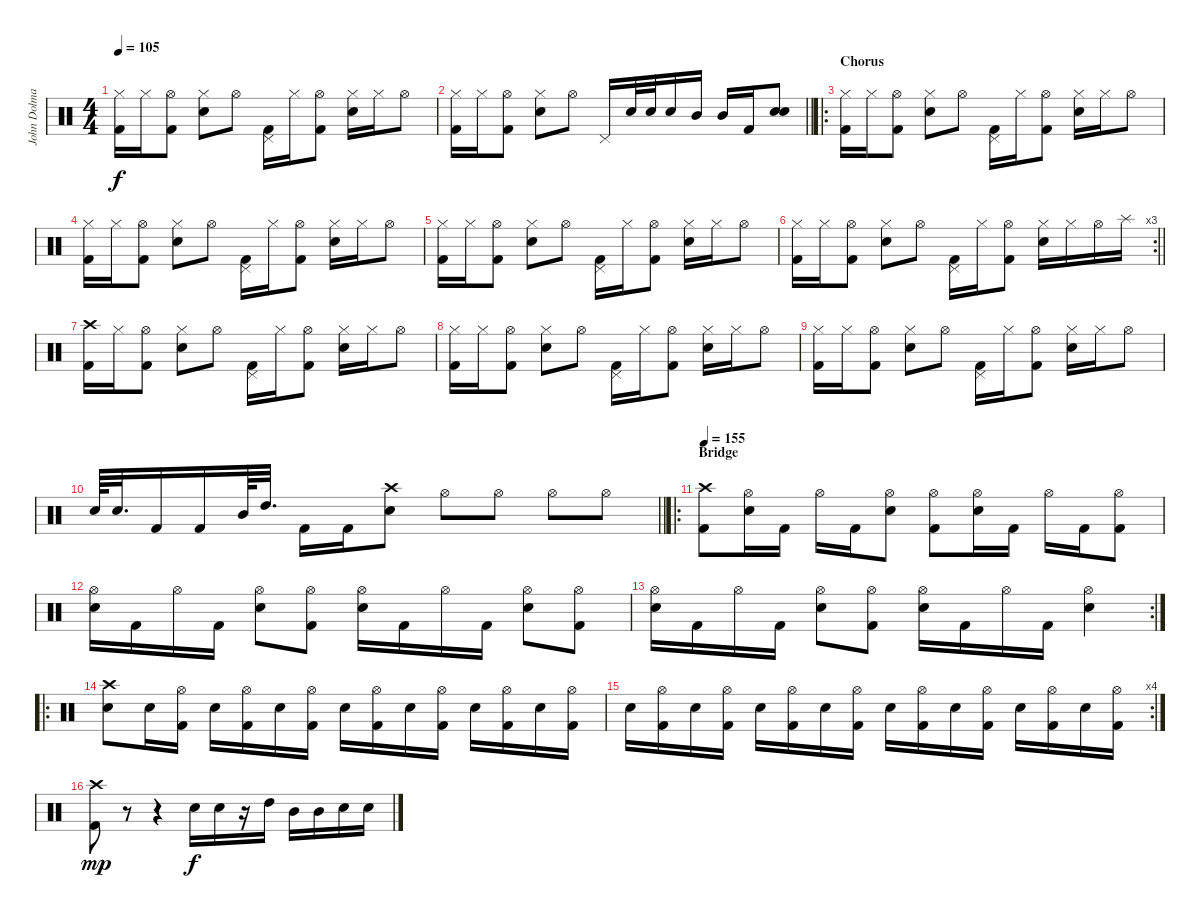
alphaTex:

\track ("John Dolmayan" "John Dolma") {instrument percussion}
\staff {score}
\articulation defaults
\ts (4 4)
\tempo 105
\clef neutral
\ks c
("Kick (hit) 2" "Hi-Hat (closed)").16{dy f} "Hi-Hat (closed)".16 ("Kick (hit) 2" "Hi-Hat (open)").8 ("Electric Snare (hit)" "Hi-Hat (closed)").8 "Hi-Hat (open)".8 ("Kick (hit) 2" "Pedal Hi-Hat (hit)").16 "Hi-Hat (closed)".16 ("Kick (hit) 2" "Hi-Hat (open)").8 ("Electric Snare (hit)" "Hi-Hat (closed)").16 "Hi-Hat (closed)".16 "Hi-Hat (open)".8 |
\barLineRight lightlight
("Kick (hit) 2" "Hi-Hat (closed)").16 "Hi-Hat (closed)".16 ("Kick (hit) 2" "Hi-Hat (open)").8 ("Electric Snare (hit)" "Hi-Hat (closed)").8 "Hi-Hat (open)".8 "Pedal Hi-Hat (hit)".16 "Electric Snare (hit)".32 "Electric Snare (hit)".32 "Electric Snare (hit)".16 "Mid Tom (hit)".16 "Mid Tom (hit)".16 "Kick (hit) 2".16 ("Electric Snare (hit)" "Electric Snare (hit)").8 |
\ro
\section ("" "Chorus")
("Kick (hit) 2" "Hi-Hat (closed)").16 "Hi-Hat (closed)".16 ("Kick (hit) 2" "Hi-Hat (open)").8 ("Electric Snare (hit)" "Hi-Hat (closed)").8 "Hi-Hat (open)".8 ("Kick (hit) 2" "Pedal Hi-Hat (hit)").16 "Hi-Hat (closed)".16 ("Kick (hit) 2" "Hi-Hat (open)").8 ("Electric Snare (hit)" "Hi-Hat (closed)").16 "Hi-Hat (closed)".16 "Hi-Hat (open)".8 |
("Kick (hit) 2" "Hi-Hat (closed)").16 "Hi-Hat (closed)".16 ("Kick (hit) 2" "Hi-Hat (open)").8 ("Electric Snare (hit)" "Hi-Hat (closed)").8 "Hi-Hat (open)".8 ("Kick (hit) 2" "Pedal Hi-Hat (hit)").16 "Hi-Hat (closed)".16 ("Kick (hit) 2" "Hi-Hat (open)").8 ("Electric Snare (hit)" "Hi-Hat (closed)").16 "Hi-Hat (closed)".16 "Hi-Hat (open)".8 |
("Kick (hit) 2" "Hi-Hat (closed)").16 "Hi-Hat (closed)".16 ("Kick (hit) 2" "Hi-Hat (open)").8 ("Electric Snare (hit)" "Hi-Hat (closed)").8 "Hi-Hat (open)".8 ("Kick (hit) 2" "Pedal Hi-Hat (hit)").16 "Hi-Hat (closed)".16 ("Kick (hit) 2" "Hi-Hat (open)").8 ("Electric Snare (hit)" "Hi-Hat (closed)").16 "Hi-Hat (closed)".16 "Hi-Hat (open)".8 |
\rc 3
\barLineRight lightlight
("Kick (hit) 2" "Hi-Hat (closed)").16 "Hi-Hat (closed)".16 ("Kick (hit) 2" "Hi-Hat (open)").8 ("Electric Snare (hit)" "Hi-Hat (closed)").8 "Hi-Hat (open)".8 ("Kick (hit) 2" "Pedal Hi-Hat (hit)").16 "Hi-Hat (closed)".16 ("Kick (hit) 2" "Hi-Hat (open)").8 ("Electric Snare (hit)" "Hi-Hat (closed)").16 "Hi-Hat (closed)".16 "Hi-Hat (open)".16 "Splash (hit)".16 |
("Kick (hit) 2" "Crash high (hit)").16 "Hi-Hat (closed)".16 ("Kick (hit) 2" "Hi-Hat (open)").8 ("Electric Snare (hit)" "Hi-Hat (closed)").8 "Hi-Hat (open)".8 ("Kick (hit) 2" "Pedal Hi-Hat (hit)").16 "Hi-Hat (closed)".16 ("Kick (hit) 2" "Hi-Hat (open)").8 ("Electric Snare (hit)" "Hi-Hat (closed)").16 "Hi-Hat (closed)".16 "Hi-Hat (open)".8 |
("Kick (hit) 2" "Hi-Hat (closed)").16 "Hi-Hat (closed)".16 ("Kick (hit) 2" "Hi-Hat (open)").8 ("Electric Snare (hit)" "Hi-Hat (closed)").8 "Hi-Hat (open)".8 ("Kick (hit) 2" "Pedal Hi-Hat (hit)").16 "Hi-Hat (closed)".16 ("Kick (hit) 2" "Hi-Hat (open)").8 ("Electric Snare (hit)" "Hi-Hat (closed)").16 "Hi-Hat (closed)".16 "Hi-Hat (open)".8 |
("Kick (hit) 2" "Hi-Hat (closed)").16 "Hi-Hat (closed)".16 ("Kick (hit) 2" "Hi-Hat (open)").8 ("Electric Snare (hit)" "Hi-Hat (closed)").8 "Hi-Hat (open)".8 ("Kick (hit) 2" "Pedal Hi-Hat (hit)").16 "Hi-Hat (closed)".16 ("Kick (hit) 2" "Hi-Hat (open)").8 ("Electric Snare (hit)" "Hi-Hat (closed)").16 "Hi-Hat (closed)".16 "Hi-Hat (open)".8 |
\barLineRight lightlight "Electric Snare (hit)".64 "Electric Snare (hit)".32{d} "Kick (hit) 2".16 "Kick (hit) 2".16 "Mid Tom (hit)".64 "High Tom (hit)".32{d} "Kick (hit) 2".16 "Kick (hit) 2".16
("Crash high (hit)" "Electric Snare (hit)").8 "Hi-Hat (open)".8 "Hi-Hat (open)".8 "Hi-Hat (open)".8 "Hi-Hat (open)".8 |
\ro
\section ("" "Bridge")
\tempo 155
("Kick (hit) 2" "Crash high (hit)").8 ("Hi-Hat (open)" "Electric Snare (hit)").16 "Kick (hit) 2".16 "Hi-Hat (open)".16 "Kick (hit) 2".16 ("Hi-Hat (open)" "Electric Snare (hit)").8 ("Kick (hit) 2" "Hi-Hat (open)").8 ("Hi-Hat (open)" "Electric Snare (hit)").16 "Kick (hit) 2".16 "Hi-Hat (open)".16 "Kick (hit) 2".16 ("Kick (hit) 2" "Hi-Hat (open)").8 |
("Hi-Hat (open)" "Electric Snare (hit)").16 "Kick (hit) 2".16 "Hi-Hat (open)".16 "Kick (hit) 2".16 ("Hi-Hat (open)" "Electric Snare (hit)").8 ("Kick (hit) 2" "Hi-Hat (open)").8 ("Hi-Hat (open)" "Electric Snare (hit)").16 "Kick (hit) 2".16 "Hi-Hat (open)".16 "Kick (hit) 2".16 ("Hi-Hat (open)" "Electric Snare (hit)").8 ("Kick (hit) 2" "Hi-Hat (open)").8 |
\rc 2
("Hi-Hat (open)" "Electric Snare (hit)").16 "Kick (hit) 2".16 "Hi-Hat (open)".16 "Kick (hit) 2".16 ("Hi-Hat (open)" "Electric Snare (hit)").8 ("Kick (hit) 2" "Hi-Hat (open)").8 ("Hi-Hat (open)" "Electric Snare (hit)").16 "Kick (hit) 2".16 "Hi-Hat (open)".16 "Kick (hit) 2".16 ("Hi-Hat (open)" "Electric Snare (hit)").4 |
\ro
("Crash high (hit)" "Electric Snare (hit)").8 "Electric Snare (hit)".16 ("Kick (hit) 2" "Hi-Hat (open)").16 "Electric Snare (hit)".16 ("Kick (hit) 2" "Hi-Hat (open)").16 "Electric Snare (hit)".16 ("Kick (hit) 2" "Hi-Hat (open)").16 "Electric Snare (hit)".16 ("Kick (hit) 2" "Hi-Hat (open)").16 "Electric Snare (hit)".16 ("Kick (hit) 2" "Hi-Hat (open)").16 "Electric Snare (hit)".16 ("Kick (hit) 2" "Hi-Hat (open)").16 "Electric Snare (hit)".16 ("Kick (hit) 2" "Hi-Hat (open)").16 |
\rc 4 "Electric Snare (hit)".16
("Kick (hit) 2" "Hi-Hat (open)").16 "Electric Snare (hit)".16 ("Kick (hit) 2" "Hi-Hat (open)").16 "Electric Snare (hit)".16 ("Kick (hit) 2" "Hi-Hat (open)").16 "Electric Snare (hit)".16 ("Kick (hit) 2" "Hi-Hat (open)").16 "Electric Snare (hit)".16 ("Kick (hit) 2" "Hi-Hat (open)").16 "Electric Snare (hit)".16 ("Kick (hit) 2" "Hi-Hat (open)").16 "Electric Snare (hit)".16 ("Kick (hit) 2" "Hi-Hat (open)").16 "Electric Snare (hit)".16 ("Kick (hit) 2" "Hi-Hat (open)").16 |
("Kick (hit) 2" "Crash high (hit)").8{dy mp} r.8{volume 0} r.4 "Electric Snare (hit)".16{dy f volume 13} "Electric Snare (hit)".16 r.16 "High Tom (hit)".16 "Mid Tom (hit)".16 "Mid Tom (hit)".16 "Electric Snare (hit)".16 "Electric Snare (hit)".16
